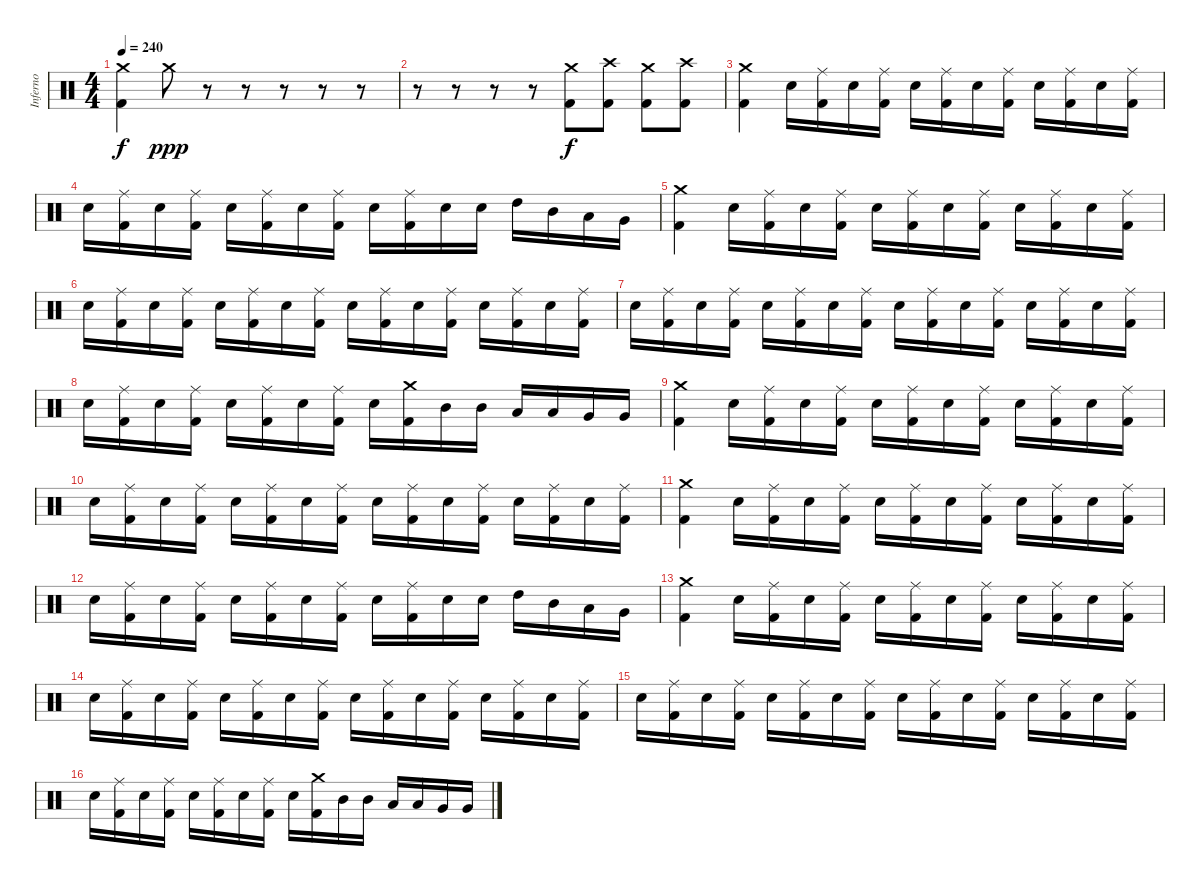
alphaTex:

\track ("Inferno" "Inferno") {instrument percussion}
\staff {score}
\articulation defaults
\ts (4 4)
\tempo 240
\clef neutral
\ks c
("Crash medium (hit)" "Kick (hit) 2").4{dy f} "Crash medium (hit)".8{dy ppp} r.8 r.8 r.8 r.8 r.8 |
r.8 r.8 r.8 r.8 ("Crash medium (hit)" "Kick (hit) 2").8{dy f} ("Crash high (hit)" "Kick (hit) 2").8 ("Crash medium (hit)" "Kick (hit) 2").8 ("Crash high (hit)" "Kick (hit) 2").8 |
("Crash medium (hit)" "Kick (hit) 2").4 "Snare (hit) 2".16 ("Ride (middle)" "Kick (hit) 2").16 "Snare (hit) 2".16 ("Ride (middle)" "Kick (hit) 2").16 "Snare (hit) 2".16 ("Ride (middle)" "Kick (hit) 2").16 "Snare (hit) 2".16 ("Ride (middle)" "Kick (hit) 2").16 "Snare (hit) 2".16 ("Ride (middle)" "Kick (hit) 2").16 "Snare (hit) 2".16 ("Ride (middle)" "Kick (hit) 2").16 |
"Snare (hit) 2".16 ("Ride (middle)" "Kick (hit) 2").16 "Snare (hit) 2".16 ("Ride (middle)" "Kick (hit) 2").16 "Snare (hit) 2".16 ("Ride (middle)" "Kick (hit) 2").16 "Snare (hit) 2".16 ("Ride (middle)" "Kick (hit) 2").16 "Snare (hit) 2".16 ("Ride (middle)" "Kick (hit) 2").16 "Snare (hit) 2".16 "Snare (hit) 2".16 "High Tom (hit)".16 "Mid Tom (hit)".16 "Low Tom (hit)".16 "Very Low Tom (hit)".16 |
("Crash medium (hit)" "Kick (hit) 2").4 "Snare (hit) 2".16 ("Ride (middle)" "Kick (hit) 2").16 "Snare (hit) 2".16 ("Ride (middle)" "Kick (hit) 2").16 "Snare (hit) 2".16 ("Ride (middle)" "Kick (hit) 2").16 "Snare (hit) 2".16 ("Ride (middle)" "Kick (hit) 2").16 "Snare (hit) 2".16 ("Ride (middle)" "Kick (hit) 2").16 "Snare (hit) 2".16 ("Ride (middle)" "Kick (hit) 2").16 |
"Snare (hit) 2".16 ("Ride (middle)" "Kick (hit) 2").16 "Snare (hit) 2".16 ("Ride (middle)" "Kick (hit) 2").16 "Snare (hit) 2".16 ("Ride (middle)" "Kick (hit) 2").16 "Snare (hit) 2".16 ("Ride (middle)" "Kick (hit) 2").16 "Snare (hit) 2".16 ("Ride (middle)" "Kick (hit) 2").16 "Snare (hit) 2".16 ("Ride (middle)" "Kick (hit) 2").16 "Snare (hit) 2".16 ("Ride (middle)" "Kick (hit) 2").16 "Snare (hit) 2".16 ("Ride (middle)" "Kick (hit) 2").16 |
"Snare (hit) 2".16 ("Ride (middle)" "Kick (hit) 2").16 "Snare (hit) 2".16 ("Ride (middle)" "Kick (hit) 2").16 "Snare (hit) 2".16 ("Ride (middle)" "Kick (hit) 2").16 "Snare (hit) 2".16 ("Ride (middle)" "Kick (hit) 2").16 "Snare (hit) 2".16 ("Ride (middle)" "Kick (hit) 2").16 "Snare (hit) 2".16 ("Ride (middle)" "Kick (hit) 2").16 "Snare (hit) 2".16 ("Ride (middle)" "Kick (hit) 2").16 "Snare (hit) 2".16 ("Ride (middle)" "Kick (hit) 2").16 |
"Snare (hit) 2".16 ("Ride (middle)" "Kick (hit) 2").16 "Snare (hit) 2".16 ("Ride (middle)" "Kick (hit) 2").16 "Snare (hit) 2".16 ("Ride (middle)" "Kick (hit) 2").16 "Snare (hit) 2".16 ("Ride (middle)" "Kick (hit) 2").16 "Snare (hit) 2".16 ("Crash medium (hit)" "Kick (hit) 2").16 "Mid Tom (hit)".16 "Mid Tom (hit)".16 "Low Tom (hit)".16 "Low Tom (hit)".16 "Very Low Tom (hit)".16 "Very Low Tom (hit)".16 |
("Crash medium (hit)" "Kick (hit) 2").4 "Snare (hit) 2".16 ("Ride (middle)" "Kick (hit) 2").16 "Snare (hit) 2".16 ("Ride (middle)" "Kick (hit) 2").16 "Snare (hit) 2".16 ("Ride (middle)" "Kick (hit) 2").16 "Snare (hit) 2".16 ("Ride (middle)" "Kick (hit) 2").16 "Snare (hit) 2".16 ("Ride (middle)" "Kick (hit) 2").16 "Snare (hit) 2".16 ("Ride (middle)" "Kick (hit) 2").16 |
"Snare (hit) 2".16 ("Ride (middle)" "Kick (hit) 2").16 "Snare (hit) 2".16 ("Ride (middle)" "Kick (hit) 2").16 "Snare (hit) 2".16 ("Ride (middle)" "Kick (hit) 2").16 "Snare (hit) 2".16 ("Ride (middle)" "Kick (hit) 2").16 "Snare (hit) 2".16 ("Ride (middle)" "Kick (hit) 2").16 "Snare (hit) 2".16 ("Ride (middle)" "Kick (hit) 2").16 "Snare (hit) 2".16 ("Ride (middle)" "Kick (hit) 2").16 "Snare (hit) 2".16 ("Ride (middle)" "Kick (hit) 2").16 |
("Crash medium (hit)" "Kick (hit) 2").4 "Snare (hit) 2".16 ("Ride (middle)" "Kick (hit) 2").16 "Snare (hit) 2".16 ("Ride (middle)" "Kick (hit) 2").16 "Snare (hit) 2".16 ("Ride (middle)" "Kick (hit) 2").16 "Snare (hit) 2".16 ("Ride (middle)" "Kick (hit) 2").16 "Snare (hit) 2".16 ("Ride (middle)" "Kick (hit) 2").16 "Snare (hit) 2".16 ("Ride (middle)" "Kick (hit) 2").16 |
"Snare (hit) 2".16 ("Ride (middle)" "Kick (hit) 2").16 "Snare (hit) 2".16 ("Ride (middle)" "Kick (hit) 2").16 "Snare (hit) 2".16 ("Ride (middle)" "Kick (hit) 2").16 "Snare (hit) 2".16 ("Ride (middle)" "Kick (hit) 2").16 "Snare (hit) 2".16 ("Ride (middle)" "Kick (hit) 2").16 "Snare (hit) 2".16 "Snare (hit) 2".16 "High Tom (hit)".16 "Mid Tom (hit)".16 "Low Tom (hit)".16 "Very Low Tom (hit)".16 |
("Crash medium (hit)" "Kick (hit) 2").4 "Snare (hit) 2".16 ("Ride (middle)" "Kick (hit) 2").16 "Snare (hit) 2".16 ("Ride (middle)" "Kick (hit) 2").16 "Snare (hit) 2".16 ("Ride (middle)" "Kick (hit) 2").16 "Snare (hit) 2".16 ("Ride (middle)" "Kick (hit) 2").16 "Snare (hit) 2".16 ("Ride (middle)" "Kick (hit) 2").16 "Snare (hit) 2".16 ("Ride (middle)" "Kick (hit) 2").16 |
"Snare (hit) 2".16 ("Ride (middle)" "Kick (hit) 2").16 "Snare (hit) 2".16 ("Ride (middle)" "Kick (hit) 2").16 "Snare (hit) 2".16 ("Ride (middle)" "Kick (hit) 2").16 "Snare (hit) 2".16 ("Ride (middle)" "Kick (hit) 2").16 "Snare (hit) 2".16 ("Ride (middle)" "Kick (hit) 2").16 "Snare (hit) 2".16 ("Ride (middle)" "Kick (hit) 2").16 "Snare (hit) 2".16 ("Ride (middle)" "Kick (hit) 2").16 "Snare (hit) 2".16 ("Ride (middle)" "Kick (hit) 2").16 |
"Snare (hit) 2".16 ("Ride (middle)" "Kick (hit) 2").16 "Snare (hit) 2".16 ("Ride (middle)" "Kick (hit) 2").16 "Snare (hit) 2".16 ("Ride (middle)" "Kick (hit) 2").16 "Snare (hit) 2".16 ("Ride (middle)" "Kick (hit) 2").16 "Snare (hit) 2".16 ("Ride (middle)" "Kick (hit) 2").16 "Snare (hit) 2".16 ("Ride (middle)" "Kick (hit) 2").16 "Snare (hit) 2".16 ("Ride (middle)" "Kick (hit) 2").16 "Snare (hit) 2".16 ("Ride (middle)" "Kick (hit) 2").16 |
"Snare (hit) 2".16 ("Ride (middle)" "Kick (hit) 2").16 "Snare (hit) 2".16 ("Ride (middle)" "Kick (hit) 2").16 "Snare (hit) 2".16 ("Ride (middle)" "Kick (hit) 2").16 "Snare (hit) 2".16 ("Ride (middle)" "Kick (hit) 2").16 "Snare (hit) 2".16 ("Crash medium (hit)" "Kick (hit) 2").16 "Mid Tom (hit)".16 "Mid Tom (hit)".16 "Low Tom (hit)".16 "Low Tom (hit)".16 "Very Low Tom (hit)".16 "Very Low Tom (hit)".16
